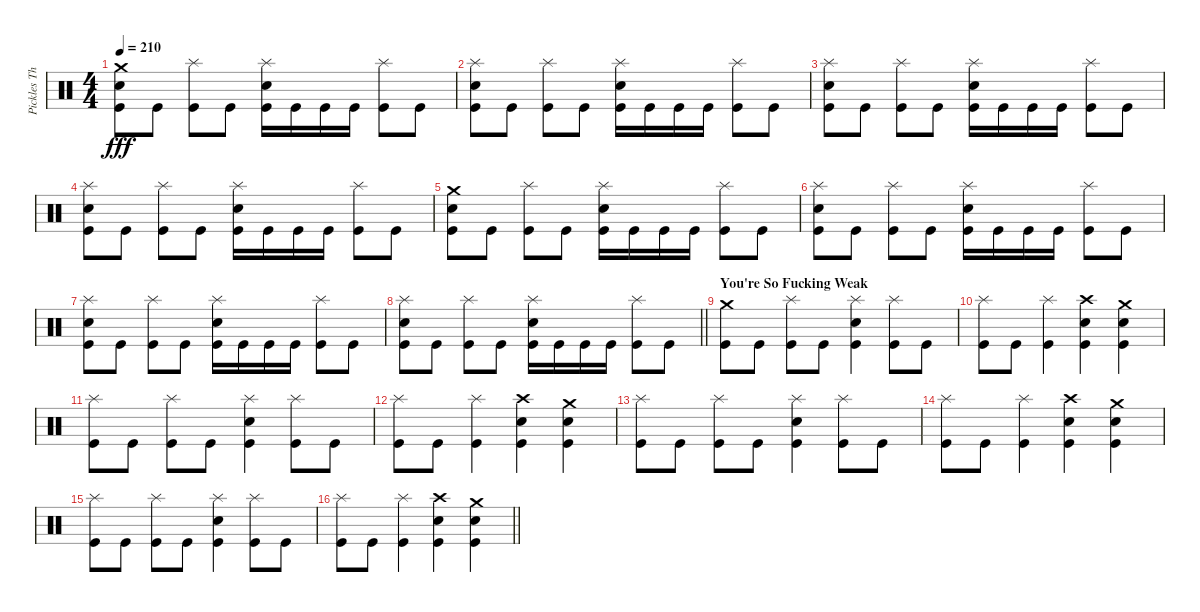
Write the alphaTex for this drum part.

\track ("Pickles The Drummer (Drums)" "Pickles Th") {instrument percussion}
\staff {score}
\articulation defaults
\ts (4 4)
\tempo 210
\clef neutral
\ks c
("Crash medium (hit)" "Snare (hit) 2" "Kick (hit)").8{dy fff} "Kick (hit)".8 ("Splash (hit)" "Kick (hit)").8 "Kick (hit)".8 ("Splash (hit)" "Snare (hit) 2" "Kick (hit)").16 "Kick (hit)".16 "Kick (hit)".16 "Kick (hit)".16 ("Splash (hit)" "Kick (hit)").8 "Kick (hit)".8 |
("Splash (hit)" "Snare (hit) 2" "Kick (hit)").8 "Kick (hit)".8 ("Splash (hit)" "Kick (hit)").8 "Kick (hit)".8 ("Splash (hit)" "Snare (hit) 2" "Kick (hit)").16 "Kick (hit)".16 "Kick (hit)".16 "Kick (hit)".16 ("Splash (hit)" "Kick (hit)").8 "Kick (hit)".8 |
("Splash (hit)" "Snare (hit) 2" "Kick (hit)").8 "Kick (hit)".8 ("Splash (hit)" "Kick (hit)").8 "Kick (hit)".8 ("Splash (hit)" "Snare (hit) 2" "Kick (hit)").16 "Kick (hit)".16 "Kick (hit)".16 "Kick (hit)".16 ("Splash (hit)" "Kick (hit)").8 "Kick (hit)".8 |
("Splash (hit)" "Snare (hit) 2" "Kick (hit)").8 "Kick (hit)".8 ("Splash (hit)" "Kick (hit)").8 "Kick (hit)".8 ("Splash (hit)" "Snare (hit) 2" "Kick (hit)").16 "Kick (hit)".16 "Kick (hit)".16 "Kick (hit)".16 ("Splash (hit)" "Kick (hit)").8 "Kick (hit)".8 |
("Crash medium (hit)" "Snare (hit) 2" "Kick (hit)").8 "Kick (hit)".8 ("Splash (hit)" "Kick (hit)").8 "Kick (hit)".8 ("Splash (hit)" "Snare (hit) 2" "Kick (hit)").16 "Kick (hit)".16 "Kick (hit)".16 "Kick (hit)".16 ("Splash (hit)" "Kick (hit)").8 "Kick (hit)".8 |
("Splash (hit)" "Snare (hit) 2" "Kick (hit)").8 "Kick (hit)".8 ("Splash (hit)" "Kick (hit)").8 "Kick (hit)".8 ("Splash (hit)" "Snare (hit) 2" "Kick (hit)").16 "Kick (hit)".16 "Kick (hit)".16 "Kick (hit)".16 ("Splash (hit)" "Kick (hit)").8 "Kick (hit)".8 |
("Splash (hit)" "Snare (hit) 2" "Kick (hit)").8 "Kick (hit)".8 ("Splash (hit)" "Kick (hit)").8 "Kick (hit)".8 ("Splash (hit)" "Snare (hit) 2" "Kick (hit)").16 "Kick (hit)".16 "Kick (hit)".16 "Kick (hit)".16 ("Splash (hit)" "Kick (hit)").8 "Kick (hit)".8 |
\barLineRight lightlight
("Splash (hit)" "Snare (hit) 2" "Kick (hit)").8 "Kick (hit)".8 ("Splash (hit)" "Kick (hit)").8 "Kick (hit)".8 ("Splash (hit)" "Snare (hit) 2" "Kick (hit)").16 "Kick (hit)".16 "Kick (hit)".16 "Kick (hit)".16 ("Splash (hit)" "Kick (hit)").8 "Kick (hit)".8 |
\section ("" "You're So Fucking Weak")
("Crash medium (hit)" "Kick (hit)").8 "Kick (hit)".8 ("Splash (hit)" "Kick (hit)").8 "Kick (hit)".8 ("Splash (hit)" "Snare (hit) 2" "Kick (hit)").4 ("Splash (hit)" "Kick (hit)").8 "Kick (hit)".8 |
("Splash (hit)" "Kick (hit)").8 "Kick (hit)".8 ("Splash (hit)" "Kick (hit)").4 ("Crash high (hit)" "Snare (hit) 2" "Kick (hit)").4 ("Crash medium (hit)" "Snare (hit) 2" "Kick (hit)").4 |
("Splash (hit)" "Kick (hit)").8 "Kick (hit)".8 ("Splash (hit)" "Kick (hit)").8 "Kick (hit)".8 ("Splash (hit)" "Snare (hit) 2" "Kick (hit)").4 ("Splash (hit)" "Kick (hit)").8 "Kick (hit)".8 |
("Splash (hit)" "Kick (hit)").8 "Kick (hit)".8 ("Splash (hit)" "Kick (hit)").4 ("Crash high (hit)" "Snare (hit) 2" "Kick (hit)").4 ("Crash medium (hit)" "Snare (hit) 2" "Kick (hit)").4 |
("Splash (hit)" "Kick (hit)").8 "Kick (hit)".8 ("Splash (hit)" "Kick (hit)").8 "Kick (hit)".8 ("Splash (hit)" "Snare (hit) 2" "Kick (hit)").4 ("Splash (hit)" "Kick (hit)").8 "Kick (hit)".8 |
("Splash (hit)" "Kick (hit)").8 "Kick (hit)".8 ("Splash (hit)" "Kick (hit)").4 ("Crash high (hit)" "Snare (hit) 2" "Kick (hit)").4 ("Crash medium (hit)" "Snare (hit) 2" "Kick (hit)").4 |
("Splash (hit)" "Kick (hit)").8 "Kick (hit)".8 ("Splash (hit)" "Kick (hit)").8 "Kick (hit)".8 ("Splash (hit)" "Snare (hit) 2" "Kick (hit)").4 ("Splash (hit)" "Kick (hit)").8 "Kick (hit)".8 |
\barLineRight lightlight
("Splash (hit)" "Kick (hit)").8 "Kick (hit)".8 ("Splash (hit)" "Kick (hit)").4 ("Crash high (hit)" "Snare (hit) 2" "Kick (hit)").4 ("Crash medium (hit)" "Snare (hit) 2" "Kick (hit)").4
